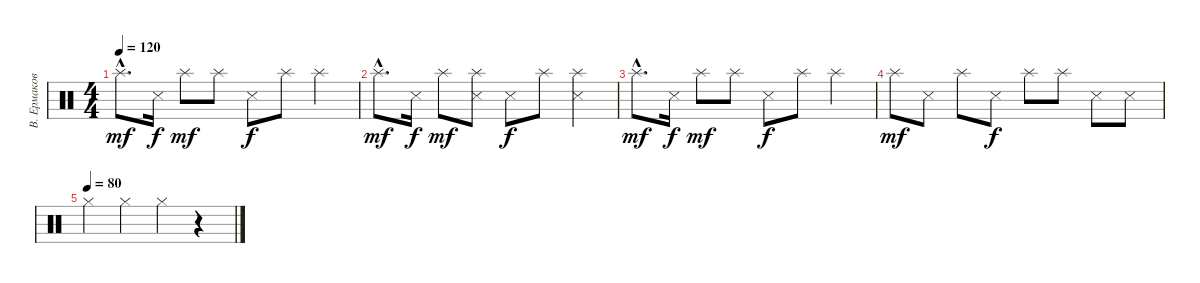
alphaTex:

\track ("В. Ермаков" "В. Ермаков") {instrument percussion}
\staff {score}
\articulation defaults
\ts (4 4)
\tempo 120
\clef neutral
\ks c "Splash (hit)"{hac}.8{d dy mf} "Snare (side stick) 3".16{dy f} "Splash (hit)".8{dy mf} "Splash (hit)".8 "Snare (side stick) 3".8{dy f} "Splash (hit)".8 "Splash (hit)".4
|
"Splash (hit)"{hac}.8{d dy mf} "Snare (side stick) 3".16{dy f} "Splash (hit)".8{dy mf} ("Snare (side stick) 3" "Splash (hit)").8 "Snare (side stick) 3".8{dy f} "Splash (hit)".8 ("Snare (side stick) 3" "Splash (hit)").4 |
"Splash (hit)"{hac}.8{d dy mf} "Snare (side stick) 3".16{dy f} "Splash (hit)".8{dy mf} "Splash (hit)".8 "Snare (side stick) 3".8{dy f} "Splash (hit)".8 "Splash (hit)".4 |
"Splash (hit)".8{dy mf} "Snare (side stick) 3".8 "Splash (hit)".8 "Snare (side stick) 3".8{dy f} "Splash (hit)".8 "Splash (hit)".8 "Snare (side stick) 3".8 "Snare (side stick) 3".8 |
\tempo (80)
"Hi-Hat (closed)".4 "Hi-Hat (closed)".4 "Hi-Hat (closed)".4 r.4
